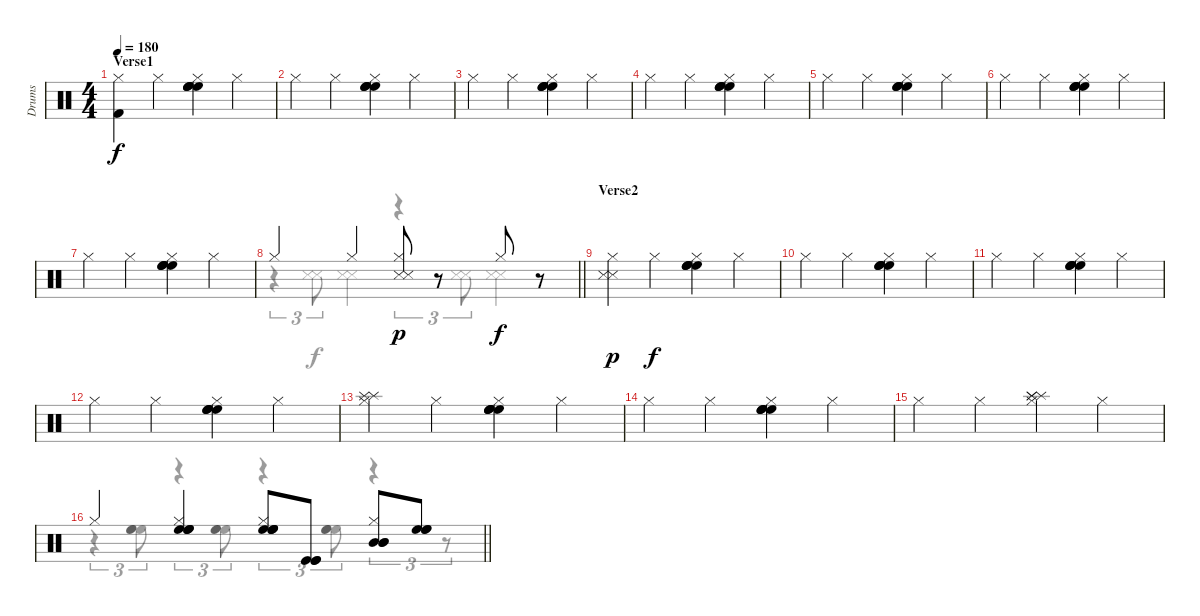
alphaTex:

\track ("Drums" "Drums") {instrument percussion}
\staff {score}
\articulation defaults
\voice
\ts (4 4)
\section ("" "Verse1")
\tempo 180
\clef neutral
\ks c
("Kick (hit) 2" "Hi-Hat (closed)").4{dy f} "Hi-Hat (closed)".4 ("High Floor Tom (hit)" "High Floor Tom (hit)" "High Floor Tom (hit)" "High Floor Tom (hit)" "Hi-Hat (closed)").4 "Hi-Hat (closed)".4 |
"Hi-Hat (closed)".4 "Hi-Hat (closed)".4 ("High Floor Tom (hit)" "High Floor Tom (hit)" "High Floor Tom (hit)" "High Floor Tom (hit)" "Hi-Hat (closed)").4 "Hi-Hat (closed)".4 |
"Hi-Hat (closed)".4 "Hi-Hat (closed)".4 ("High Floor Tom (hit)" "High Floor Tom (hit)" "High Floor Tom (hit)" "High Floor Tom (hit)" "Hi-Hat (closed)").4 "Hi-Hat (closed)".4 |
"Hi-Hat (closed)".4 "Hi-Hat (closed)".4 ("High Floor Tom (hit)" "High Floor Tom (hit)" "High Floor Tom (hit)" "High Floor Tom (hit)" "Hi-Hat (closed)").4 "Hi-Hat (closed)".4 |
"Hi-Hat (closed)".4 "Hi-Hat (closed)".4 ("High Floor Tom (hit)" "High Floor Tom (hit)" "High Floor Tom (hit)" "High Floor Tom (hit)" "Hi-Hat (closed)").4 "Hi-Hat (closed)".4 |
"Hi-Hat (closed)".4 "Hi-Hat (closed)".4 ("High Floor Tom (hit)" "High Floor Tom (hit)" "High Floor Tom (hit)" "High Floor Tom (hit)" "Hi-Hat (closed)").4 "Hi-Hat (closed)".4 |
"Hi-Hat (closed)".4 "Hi-Hat (closed)".4 ("High Floor Tom (hit)" "High Floor Tom (hit)" "High Floor Tom (hit)" "High Floor Tom (hit)" "Hi-Hat (closed)").4 "Hi-Hat (closed)".4 |
\barLineRight lightlight "Hi-Hat (closed)".4 "Hi-Hat (closed)".4
("Snare (side stick) 3" "Snare (side stick) 3" "Hi-Hat (closed)").8{dy p} r.8 "Hi-Hat (closed)".8{dy f} r.8 |
\section ("" "Verse2")
("Snare (side stick) 3" "Snare (side stick) 3" "Hi-Hat (closed)").4{dy p} "Hi-Hat (closed)".4{dy f} ("High Floor Tom (hit)" "High Floor Tom (hit)" "High Floor Tom (hit)" "High Floor Tom (hit)" "Hi-Hat (closed)").4 "Hi-Hat (closed)".4 |
"Hi-Hat (closed)".4 "Hi-Hat (closed)".4 ("High Floor Tom (hit)" "High Floor Tom (hit)" "High Floor Tom (hit)" "High Floor Tom (hit)" "Hi-Hat (closed)").4 "Hi-Hat (closed)".4 |
"Hi-Hat (closed)".4 "Hi-Hat (closed)".4 ("High Floor Tom (hit)" "High Floor Tom (hit)" "High Floor Tom (hit)" "High Floor Tom (hit)" "Hi-Hat (closed)").4 "Hi-Hat (closed)".4 |
"Hi-Hat (closed)".4 "Hi-Hat (closed)".4 ("High Floor Tom (hit)" "High Floor Tom (hit)" "High Floor Tom (hit)" "High Floor Tom (hit)" "Hi-Hat (closed)").4 "Hi-Hat (closed)".4 |
("Splash (hit)" "Splash (hit)" "Hi-Hat (closed)").4 "Hi-Hat (closed)".4 ("High Floor Tom (hit)" "High Floor Tom (hit)" "High Floor Tom (hit)" "High Floor Tom (hit)" "Hi-Hat (closed)").4 "Hi-Hat (closed)".4 |
"Hi-Hat (closed)".4 "Hi-Hat (closed)".4 ("High Floor Tom (hit)" "High Floor Tom (hit)" "High Floor Tom (hit)" "High Floor Tom (hit)" "Hi-Hat (closed)").4 "Hi-Hat (closed)".4 |
"Hi-Hat (closed)".4 "Hi-Hat (closed)".4 ("Splash (hit)" "Splash (hit)" "Splash (hit)" "Hi-Hat (closed)").4 "Hi-Hat (closed)".4 |
\barLineRight lightlight "Hi-Hat (closed)".4
("High Floor Tom (hit)" "High Floor Tom (hit)" "High Floor Tom (hit)" "High Floor Tom (hit)" "Hi-Hat (closed)").4 ("High Floor Tom (hit)" "High Floor Tom (hit)" "High Floor Tom (hit)" "High Floor Tom (hit)" "Hi-Hat (closed)").8 ("Kick (hit)" "Kick (hit)" "Kick (hit)").8 ("Mid Tom (hit)" "Mid Tom (hit)" "Mid Tom (hit)" "Hi-Hat (closed)").8 ("High Floor Tom (hit)" "High Floor Tom (hit)" "High Floor Tom (hit)").8
\voice
\clef neutral
\ottava regular
\simile none
\ks c
|
|
|
|
|
|
|
\barLineRight lightlight
r.4{tu (3 2)} ("Snare (side stick) 3" "Snare (side stick) 3").8{tu (3 2)} ("Snare (side stick) 3" "Snare (side stick) 3").4 r.4{tu (3 2)} ("Snare (side stick) 3" "Snare (side stick) 3").8{tu (3 2)} ("Snare (side stick) 3" "Snare (side stick) 3").4 |
|
|
|
|
|
|
|
\barLineRight lightlight
r.4{tu (3 2)} ("High Floor Tom (hit)" "High Floor Tom (hit)" "High Floor Tom (hit)").8{tu (3 2) dy f} r.4{tu (3 2)} ("High Floor Tom (hit)" "High Floor Tom (hit)" "High Floor Tom (hit)").8{tu (3 2)} r.4{tu (3 2)} ("High Floor Tom (hit)" "High Floor Tom (hit)" "High Floor Tom (hit)").8{tu (3 2)} r.4{tu (3 2)} r.8{tu (3 2)}
